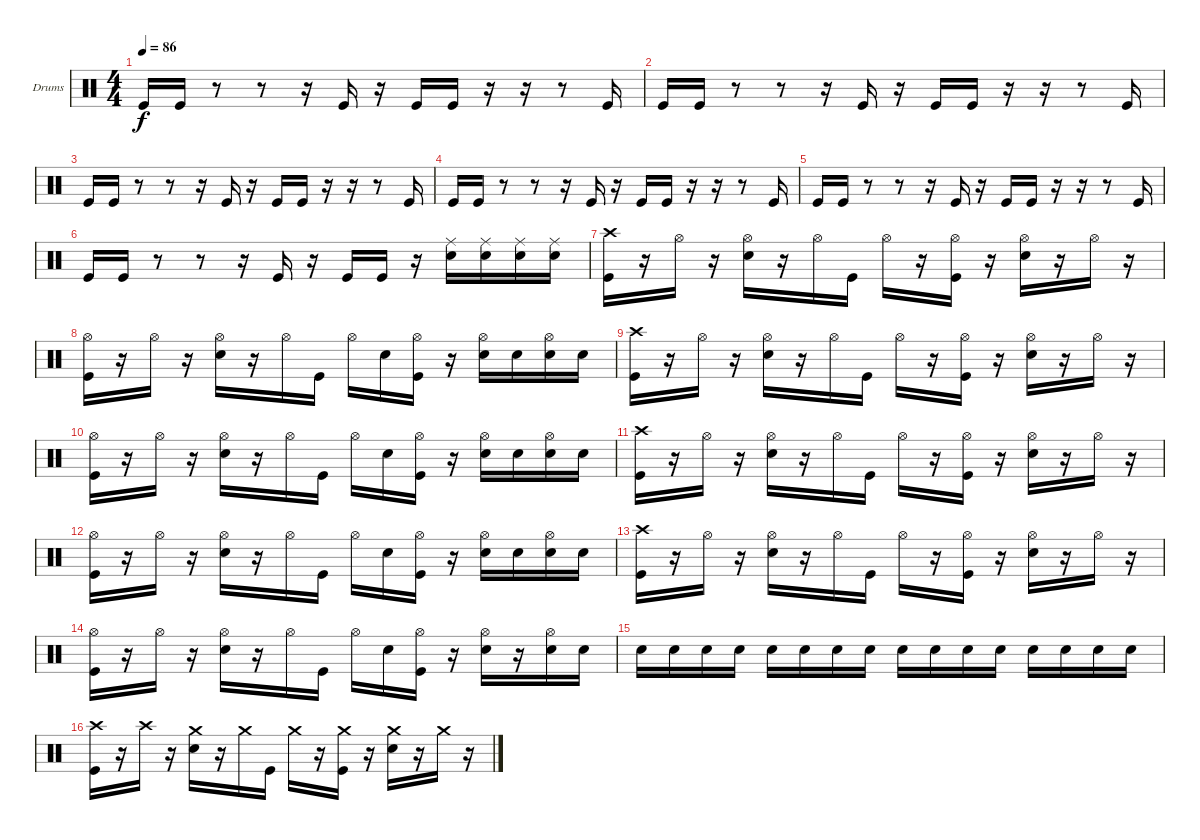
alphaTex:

\defaultSystemsLayout 4
\bracketExtendMode groupsimilarinstruments
\firstSystemTrackNameOrientation horizontal
\otherSystemsTrackNameOrientation horizontal
\track ("Rocky Gray (Drums)" "Drums") {instrument percussion}
\staff {score}
\articulation defaults
\ts (4 4)
\tempo 86
\clef neutral
\scale
0.333333
\ks c "Kick (hit)".16{dy f} "Kick (hit)".16
r.8 r.8 r.16 "Kick (hit)".16 r.16 "Kick (hit)".16 "Kick (hit)".16 r.16 r.16 r.8 "Kick (hit)".16 |
\scale
0.333333 "Kick (hit)".16 "Kick (hit)".16 r.8 r.8 r.16 "Kick (hit)".16 r.16 "Kick (hit)".16 "Kick (hit)".16 r.16 r.16 r.8 "Kick (hit)".16 |
\scale
0.333333 "Kick (hit)".16 "Kick (hit)".16 r.8 r.8 r.16 "Kick (hit)".16 r.16 "Kick (hit)".16 "Kick (hit)".16 r.16 r.16 r.8 "Kick (hit)".16 |
\scale
0.333333 "Kick (hit)".16 "Kick (hit)".16 r.8 r.8 r.16 "Kick (hit)".16 r.16 "Kick (hit)".16 "Kick (hit)".16 r.16 r.16 r.8 "Kick (hit)".16 |
\scale
0.333333 "Kick (hit)".16 "Kick (hit)".16 r.8 r.8 r.16 "Kick (hit)".16 r.16 "Kick (hit)".16 "Kick (hit)".16 r.16 r.16 r.8 "Kick (hit)".16 |
\scale
0.333333 "Kick (hit)".16 "Kick (hit)".16 r.8 r.8 r.16 "Kick (hit)".16 r.16 "Kick (hit)".16 "Kick (hit)".16 r.16 ("Ride (middle)" "Snare (hit) 2").16 ("Ride (middle)" "Snare (hit) 2").16 ("Ride (middle)" "Snare (hit) 2").16 ("Ride (middle)" "Snare (hit) 2").16 |
\scale
0.333333 ("Crash high (hit)" "Kick (hit)").16 r.16 "Hi-Hat (open)".16 r.16 ("Hi-Hat (open)" "Snare (hit) 2").16 r.16 "Hi-Hat (open)".16 "Kick (hit)".16 "Hi-Hat (open)".16 r.16 ("Hi-Hat (open)" "Kick (hit)").16 r.16 ("Hi-Hat (open)" "Snare (hit) 2").16 r.16 "Hi-Hat (open)".16 r.16 |
\scale
0.333333 ("Hi-Hat (open)" "Kick (hit)").16 r.16 "Hi-Hat (open)".16 r.16 ("Hi-Hat (open)" "Snare (hit) 2").16 r.16 "Hi-Hat (open)".16 "Kick (hit)".16 "Hi-Hat (open)".16 "Snare (hit) 2".16 ("Hi-Hat (open)" "Kick (hit)").16 r.16 ("Hi-Hat (open)" "Snare (hit) 2").16 "Snare (hit) 2".16 ("Hi-Hat (open)" "Snare (hit) 2").16 "Snare (hit) 2".16 |
\scale
0.333333 ("Crash high (hit)" "Kick (hit)").16 r.16 "Hi-Hat (open)".16 r.16 ("Hi-Hat (open)" "Snare (hit) 2").16 r.16 "Hi-Hat (open)".16 "Kick (hit)".16 "Hi-Hat (open)".16 r.16 ("Hi-Hat (open)" "Kick (hit)").16 r.16 ("Hi-Hat (open)" "Snare (hit) 2").16 r.16 "Hi-Hat (open)".16 r.16 |
\scale
0.333333 ("Hi-Hat (open)" "Kick (hit)").16 r.16 "Hi-Hat (open)".16 r.16 ("Hi-Hat (open)" "Snare (hit) 2").16 r.16 "Hi-Hat (open)".16 "Kick (hit)".16 "Hi-Hat (open)".16 "Snare (hit) 2".16 ("Hi-Hat (open)" "Kick (hit)").16 r.16 ("Hi-Hat (open)" "Snare (hit) 2").16 "Snare (hit) 2".16 ("Hi-Hat (open)" "Snare (hit) 2").16 "Snare (hit) 2".16 |
\scale
0.333333 ("Crash high (hit)" "Kick (hit)").16 r.16 "Hi-Hat (open)".16 r.16 ("Hi-Hat (open)" "Snare (hit) 2").16 r.16 "Hi-Hat (open)".16 "Kick (hit)".16 "Hi-Hat (open)".16 r.16 ("Hi-Hat (open)" "Kick (hit)").16 r.16 ("Hi-Hat (open)" "Snare (hit) 2").16 r.16 "Hi-Hat (open)".16 r.16 |
\scale
0.333333 ("Hi-Hat (open)" "Kick (hit)").16 r.16 "Hi-Hat (open)".16 r.16 ("Hi-Hat (open)" "Snare (hit) 2").16 r.16 "Hi-Hat (open)".16 "Kick (hit)".16 "Hi-Hat (open)".16 "Snare (hit) 2".16 ("Hi-Hat (open)" "Kick (hit)").16 r.16 ("Hi-Hat (open)" "Snare (hit) 2").16 "Snare (hit) 2".16 ("Hi-Hat (open)" "Snare (hit) 2").16 "Snare (hit) 2".16 |
\scale
0.333333 ("Crash high (hit)" "Kick (hit)").16 r.16 "Hi-Hat (open)".16 r.16 ("Hi-Hat (open)" "Snare (hit) 2").16 r.16 "Hi-Hat (open)".16 "Kick (hit)".16 "Hi-Hat (open)".16 r.16 ("Hi-Hat (open)" "Kick (hit)").16 r.16 ("Hi-Hat (open)" "Snare (hit) 2").16 r.16 "Hi-Hat (open)".16 r.16 |
\scale
0.333333 ("Hi-Hat (open)" "Kick (hit)").16 r.16 "Hi-Hat (open)".16 r.16 ("Hi-Hat (open)" "Snare (hit) 2").16 r.16 "Hi-Hat (open)".16 "Kick (hit)".16 "Hi-Hat (open)".16 "Snare (hit) 2".16 ("Hi-Hat (open)" "Kick (hit)").16 r.16 ("Hi-Hat (open)" "Snare (hit) 2").16 r.16 ("Hi-Hat (open)" "Snare (hit) 2").16 "Snare (hit) 2".16 |
\scale
0.333333 "Snare (hit) 2".16 "Snare (hit) 2".16 "Snare (hit) 2".16 "Snare (hit) 2".16 "Snare (hit) 2".16 "Snare (hit) 2".16 "Snare (hit) 2".16 "Snare (hit) 2".16 "Snare (hit) 2".16 "Snare (hit) 2".16 "Snare (hit) 2".16 "Snare (hit) 2".16 "Snare (hit) 2".16 "Snare (hit) 2".16 "Snare (hit) 2".16 "Snare (hit) 2".16 |
\scale
0.333333 ("Crash high (hit)" "Kick (hit)").16 r.16 "Crash high (hit)".16 r.16 ("Crash medium (hit)" "Snare (hit) 2").16 r.16 "Crash medium (hit)".16 "Kick (hit)".16 "Crash medium (hit)".16 r.16 ("Crash medium (hit)" "Kick (hit)").16 r.16 ("Crash medium (hit)" "Snare (hit) 2").16 r.16 "Crash medium (hit)".16 r.16
